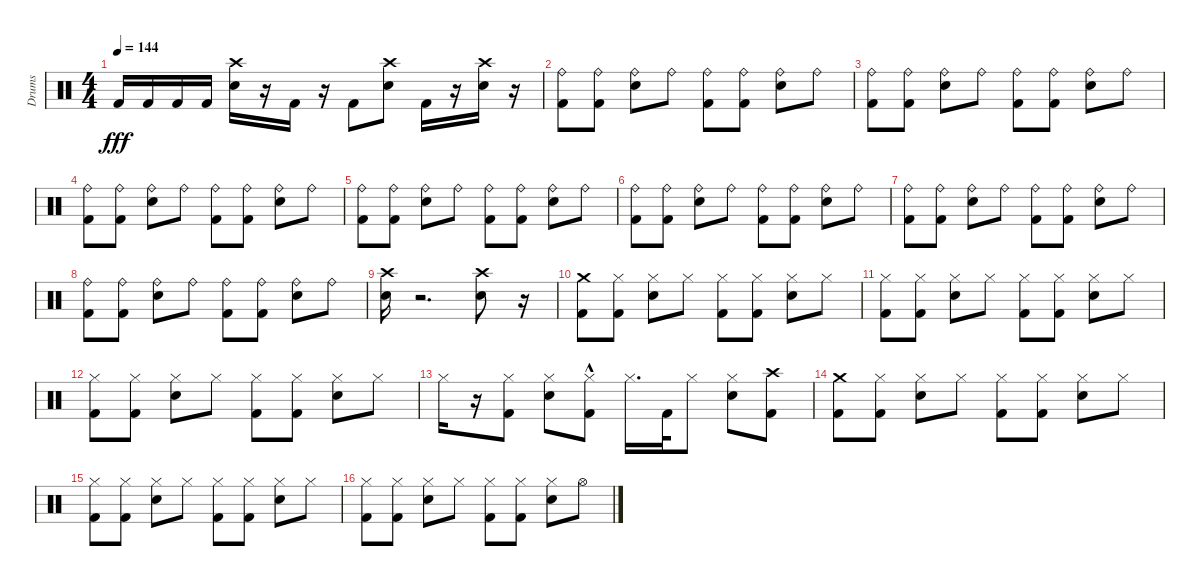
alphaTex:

\track ("Drums" "Drums") {instrument percussion}
\staff {score}
\articulation defaults
\ts (4 4)
\tempo 144
\clef neutral
\ks c "Kick (hit) 2".16{dy fff} "Kick (hit) 2".16 "Kick (hit) 2".16 "Kick (hit) 2".16
("Snare (hit) 2" "Crash high (hit)").16 r.16 "Kick (hit) 2".16 r.16 "Kick (hit) 2".8 ("Snare (hit) 2" "Crash high (hit)").8 "Kick (hit) 2".16 r.16 ("Snare (hit) 2" "Crash high (hit)").16 r.16 |
("Kick (hit) 2" "Ride (bell)").8 ("Kick (hit) 2" "Ride (bell)").8 ("Snare (hit) 2" "Ride (bell)").8 "Ride (bell)".8 ("Kick (hit) 2" "Ride (bell)").8 ("Kick (hit) 2" "Ride (bell)").8 ("Snare (hit) 2" "Ride (bell)").8 "Ride (bell)".8 |
("Ride (bell)" "Kick (hit) 2").8 ("Kick (hit) 2" "Ride (bell)").8 ("Snare (hit) 2" "Ride (bell)").8 "Ride (bell)".8 ("Kick (hit) 2" "Ride (bell)").8 ("Kick (hit) 2" "Ride (bell)").8 ("Snare (hit) 2" "Ride (bell)").8 "Ride (bell)".8 |
("Ride (bell)" "Kick (hit) 2").8 ("Kick (hit) 2" "Ride (bell)").8 ("Snare (hit) 2" "Ride (bell)").8 "Ride (bell)".8 ("Kick (hit) 2" "Ride (bell)").8 ("Kick (hit) 2" "Ride (bell)").8 ("Snare (hit) 2" "Ride (bell)").8 "Ride (bell)".8 |
("Ride (bell)" "Kick (hit) 2").8 ("Kick (hit) 2" "Ride (bell)").8 ("Snare (hit) 2" "Ride (bell)").8 "Ride (bell)".8 ("Kick (hit) 2" "Ride (bell)").8 ("Kick (hit) 2" "Ride (bell)").8 ("Snare (hit) 2" "Ride (bell)").8 "Ride (bell)".8 |
("Ride (bell)" "Kick (hit) 2").8 ("Kick (hit) 2" "Ride (bell)").8 ("Snare (hit) 2" "Ride (bell)").8 "Ride (bell)".8 ("Kick (hit) 2" "Ride (bell)").8 ("Kick (hit) 2" "Ride (bell)").8 ("Snare (hit) 2" "Ride (bell)").8 "Ride (bell)".8 |
("Kick (hit) 2" "Ride (bell)").8 ("Kick (hit) 2" "Ride (bell)").8 ("Snare (hit) 2" "Ride (bell)").8 "Ride (bell)".8 ("Kick (hit) 2" "Ride (bell)").8 ("Kick (hit) 2" "Ride (bell)").8 ("Snare (hit) 2" "Ride (bell)").8 "Ride (bell)".8 |
("Kick (hit) 2" "Ride (bell)").8 ("Kick (hit) 2" "Ride (bell)").8 ("Snare (hit) 2" "Ride (bell)").8 "Ride (bell)".8 ("Kick (hit) 2" "Ride (bell)").8 ("Kick (hit) 2" "Ride (bell)").8 ("Snare (hit) 2" "Ride (bell)").8 "Ride (bell)".8 |
("Snare (hit) 2" "Crash high (hit)").16 r.2{d} ("Crash high (hit)" "Snare (hit) 2").8 r.16 |
("Kick (hit) 2" "Crash medium (hit)").8 ("Hi-Hat (closed)" "Kick (hit) 2").8 ("Snare (hit) 2" "Hi-Hat (closed)").8 "Hi-Hat (closed)".8 ("Kick (hit) 2" "Hi-Hat (closed)").8 ("Hi-Hat (closed)" "Kick (hit) 2").8 ("Snare (hit) 2" "Hi-Hat (closed)").8 "Hi-Hat (closed)".8 |
("Kick (hit) 2" "Hi-Hat (closed)").8 ("Hi-Hat (closed)" "Kick (hit) 2").8 ("Snare (hit) 2" "Hi-Hat (closed)").8 "Hi-Hat (closed)".8 ("Kick (hit) 2" "Hi-Hat (closed)").8 ("Hi-Hat (closed)" "Kick (hit) 2").8 ("Snare (hit) 2" "Hi-Hat (closed)").8 "Hi-Hat (closed)".8 |
("Kick (hit) 2" "Hi-Hat (closed)").8 ("Kick (hit) 2" "Hi-Hat (closed)").8 ("Snare (hit) 2" "Hi-Hat (closed)").8 "Hi-Hat (closed)".8 ("Kick (hit) 2" "Hi-Hat (closed)").8 ("Kick (hit) 2" "Hi-Hat (closed)").8 ("Snare (hit) 2" "Hi-Hat (closed)").8 "Hi-Hat (closed)".8 |
"Hi-Hat (closed)".16 r.16 ("Kick (hit) 2" "Hi-Hat (closed)").8 ("Snare (hit) 2" "Hi-Hat (closed)").8 ("Hi-Hat (closed)" "Kick (hit) 2"{hac}).8 "Hi-Hat (closed)".16{d} "Kick (hit) 2".32 "Hi-Hat (closed)".8 ("Snare (hit) 2" "Hi-Hat (closed)").8 ("Kick (hit) 2" "Crash high (hit)").8 |
("Kick (hit) 2" "Crash medium (hit)").8 ("Kick (hit) 2" "Hi-Hat (closed)").8 ("Snare (hit) 2" "Hi-Hat (closed)").8 "Hi-Hat (closed)".8 ("Kick (hit) 2" "Hi-Hat (closed)").8 ("Kick (hit) 2" "Hi-Hat (closed)").8 ("Snare (hit) 2" "Hi-Hat (closed)").8 "Hi-Hat (closed)".8 |
("Kick (hit) 2" "Hi-Hat (closed)").8 ("Kick (hit) 2" "Hi-Hat (closed)").8 ("Snare (hit) 2" "Hi-Hat (closed)").8 "Hi-Hat (closed)".8 ("Kick (hit) 2" "Hi-Hat (closed)").8 ("Kick (hit) 2" "Hi-Hat (closed)").8 ("Snare (hit) 2" "Hi-Hat (closed)").8 "Hi-Hat (closed)".8 |
("Hi-Hat (closed)" "Kick (hit) 2").8 ("Kick (hit) 2" "Hi-Hat (closed)").8 ("Snare (hit) 2" "Hi-Hat (closed)").8 "Hi-Hat (closed)".8 ("Kick (hit) 2" "Hi-Hat (closed)").8 ("Kick (hit) 2" "Hi-Hat (closed)").8 ("Snare (hit) 2" "Hi-Hat (closed)").8 "Hi-Hat (open)".8
